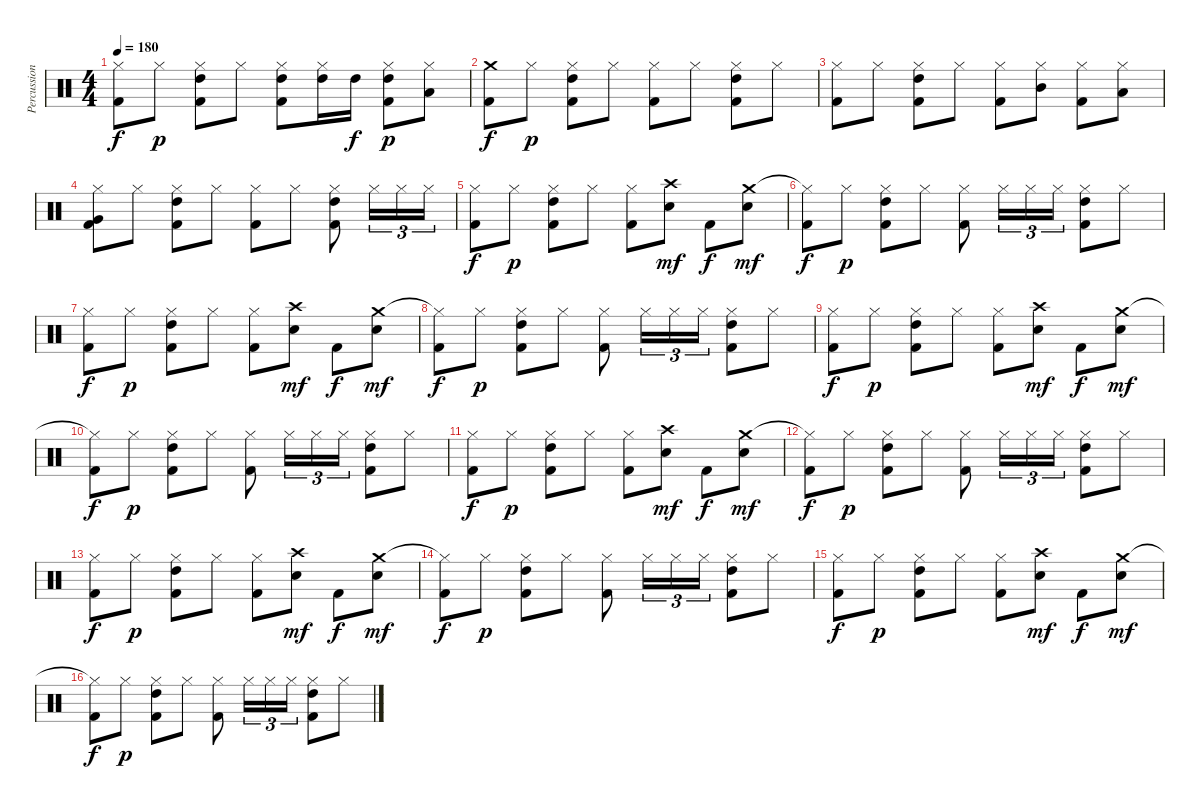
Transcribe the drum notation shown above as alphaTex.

\track ("Percussions" "Percussion") {instrument percussion}
\staff {score}
\articulation defaults
\ts (4 4)
\tempo 180
\clef neutral
\ks c
("Hi-Hat (closed)" "Kick (hit) 2").8{dy f} "Hi-Hat (closed)".8{dy p} ("Hi-Hat (closed)" "High Tom (hit)" "Kick (hit) 2").8 "Hi-Hat (closed)".8 ("Hi-Hat (closed)" "High Tom (hit)" "Kick (hit) 2").8 ("Hi-Hat (closed)" "High Tom (hit)").16 "High Tom (hit)".16{dy f} ("Hi-Hat (closed)" "High Tom (hit)" "Kick (hit) 2").8{dy p} ("Hi-Hat (closed)" "Low Tom (hit)").8 |
("Crash medium (hit)" "Kick (hit) 2").8{dy f} "Hi-Hat (closed)".8{dy p} ("Hi-Hat (closed)" "High Tom (hit)" "Kick (hit) 2").8 "Hi-Hat (closed)".8 ("Hi-Hat (closed)" "Kick (hit) 2").8 "Hi-Hat (closed)".8 ("Hi-Hat (closed)" "High Tom (hit)" "Kick (hit) 2").8 "Hi-Hat (closed)".8 |
("Hi-Hat (closed)" "Kick (hit) 2").8 "Hi-Hat (closed)".8 ("Hi-Hat (closed)" "High Tom (hit)" "Kick (hit) 2").8 "Hi-Hat (closed)".8 ("Hi-Hat (closed)" "Kick (hit) 2").8 ("Hi-Hat (closed)" "Mid Tom (hit)").8 ("Hi-Hat (closed)" "Kick (hit) 2").8 ("Hi-Hat (closed)" "Low Tom (hit)").8 |
("Hi-Hat (closed)" "Very Low Tom (hit)" "Kick (hit) 2").8 "Hi-Hat (closed)".8 ("Hi-Hat (closed)" "High Tom (hit)" "Kick (hit) 2").8 "Hi-Hat (closed)".8 ("Hi-Hat (closed)" "Kick (hit) 2").8 "Hi-Hat (closed)".8 ("Hi-Hat (closed)" "High Tom (hit)" "Kick (hit) 2").8 "Hi-Hat (closed)".16{tu (3 2)} "Hi-Hat (closed)".16{tu (3 2)} "Hi-Hat (closed)".16{tu (3 2)} |
("Hi-Hat (closed)" "Kick (hit) 2").8{dy f} "Hi-Hat (closed)".8{dy p} ("Hi-Hat (closed)" "High Tom (hit)" "Kick (hit) 2").8 "Hi-Hat (closed)".8 ("Hi-Hat (closed)" "Kick (hit) 2").8 ("Crash high (hit)" "Electric Snare (hit)").8{dy mf} "Kick (hit) 2".8{dy f} ("Crash medium (hit)" "Electric Snare (hit)").8{dy mf} |
("Hi-Hat (closed)"{t} "Kick (hit) 2").8{dy f} "Hi-Hat (closed)".8{dy p} ("Hi-Hat (closed)" "High Tom (hit)" "Kick (hit) 2").8 "Hi-Hat (closed)".8 ("Hi-Hat (closed)" "Kick (hit) 2").8 "Hi-Hat (closed)".16{tu (3 2)} "Hi-Hat (closed)".16{tu (3 2)} "Hi-Hat (closed)".16{tu (3 2)} ("Hi-Hat (closed)" "High Tom (hit)" "Kick (hit) 2").8 "Hi-Hat (closed)".8 |
("Hi-Hat (closed)" "Kick (hit) 2").8{dy f} "Hi-Hat (closed)".8{dy p} ("Hi-Hat (closed)" "High Tom (hit)" "Kick (hit) 2").8 "Hi-Hat (closed)".8 ("Hi-Hat (closed)" "Kick (hit) 2").8 ("Crash high (hit)" "Electric Snare (hit)").8{dy mf} "Kick (hit) 2".8{dy f} ("Crash medium (hit)" "Electric Snare (hit)").8{dy mf} |
("Hi-Hat (closed)"{t} "Kick (hit) 2").8{dy f} "Hi-Hat (closed)".8{dy p} ("Hi-Hat (closed)" "High Tom (hit)" "Kick (hit) 2").8 "Hi-Hat (closed)".8 ("Hi-Hat (closed)" "Kick (hit) 2").8 "Hi-Hat (closed)".16{tu (3 2)} "Hi-Hat (closed)".16{tu (3 2)} "Hi-Hat (closed)".16{tu (3 2)} ("Hi-Hat (closed)" "High Tom (hit)" "Kick (hit) 2").8 "Hi-Hat (closed)".8 |
("Hi-Hat (closed)" "Kick (hit) 2").8{dy f} "Hi-Hat (closed)".8{dy p} ("Hi-Hat (closed)" "High Tom (hit)" "Kick (hit) 2").8 "Hi-Hat (closed)".8 ("Hi-Hat (closed)" "Kick (hit) 2").8 ("Crash high (hit)" "Electric Snare (hit)").8{dy mf} "Kick (hit) 2".8{dy f} ("Crash medium (hit)" "Electric Snare (hit)").8{dy mf} |
("Hi-Hat (closed)"{t} "Kick (hit) 2").8{dy f} "Hi-Hat (closed)".8{dy p} ("Hi-Hat (closed)" "High Tom (hit)" "Kick (hit) 2").8 "Hi-Hat (closed)".8 ("Hi-Hat (closed)" "Kick (hit) 2").8 "Hi-Hat (closed)".16{tu (3 2)} "Hi-Hat (closed)".16{tu (3 2)} "Hi-Hat (closed)".16{tu (3 2)} ("Hi-Hat (closed)" "High Tom (hit)" "Kick (hit) 2").8 "Hi-Hat (closed)".8 |
("Hi-Hat (closed)" "Kick (hit) 2").8{dy f} "Hi-Hat (closed)".8{dy p} ("Hi-Hat (closed)" "High Tom (hit)" "Kick (hit) 2").8 "Hi-Hat (closed)".8 ("Hi-Hat (closed)" "Kick (hit) 2").8 ("Crash high (hit)" "Electric Snare (hit)").8{dy mf} "Kick (hit) 2".8{dy f} ("Crash medium (hit)" "Electric Snare (hit)").8{dy mf} |
("Hi-Hat (closed)"{t} "Kick (hit) 2").8{dy f} "Hi-Hat (closed)".8{dy p} ("Hi-Hat (closed)" "High Tom (hit)" "Kick (hit) 2").8 "Hi-Hat (closed)".8 ("Hi-Hat (closed)" "Kick (hit) 2").8 "Hi-Hat (closed)".16{tu (3 2)} "Hi-Hat (closed)".16{tu (3 2)} "Hi-Hat (closed)".16{tu (3 2)} ("Hi-Hat (closed)" "High Tom (hit)" "Kick (hit) 2").8 "Hi-Hat (closed)".8 |
("Hi-Hat (closed)" "Kick (hit) 2").8{dy f} "Hi-Hat (closed)".8{dy p} ("Hi-Hat (closed)" "High Tom (hit)" "Kick (hit) 2").8 "Hi-Hat (closed)".8 ("Hi-Hat (closed)" "Kick (hit) 2").8 ("Crash high (hit)" "Electric Snare (hit)").8{dy mf} "Kick (hit) 2".8{dy f} ("Crash medium (hit)" "Electric Snare (hit)").8{dy mf} |
("Hi-Hat (closed)"{t} "Kick (hit) 2").8{dy f} "Hi-Hat (closed)".8{dy p} ("Hi-Hat (closed)" "High Tom (hit)" "Kick (hit) 2").8 "Hi-Hat (closed)".8 ("Hi-Hat (closed)" "Kick (hit) 2").8 "Hi-Hat (closed)".16{tu (3 2)} "Hi-Hat (closed)".16{tu (3 2)} "Hi-Hat (closed)".16{tu (3 2)} ("Hi-Hat (closed)" "High Tom (hit)" "Kick (hit) 2").8 "Hi-Hat (closed)".8 |
("Hi-Hat (closed)" "Kick (hit) 2").8{dy f} "Hi-Hat (closed)".8{dy p} ("Hi-Hat (closed)" "High Tom (hit)" "Kick (hit) 2").8 "Hi-Hat (closed)".8 ("Hi-Hat (closed)" "Kick (hit) 2").8 ("Crash high (hit)" "Electric Snare (hit)").8{dy mf} "Kick (hit) 2".8{dy f} ("Crash medium (hit)" "Electric Snare (hit)").8{dy mf} |
("Hi-Hat (closed)"{t} "Kick (hit) 2").8{dy f} "Hi-Hat (closed)".8{dy p} ("Hi-Hat (closed)" "High Tom (hit)" "Kick (hit) 2").8 "Hi-Hat (closed)".8 ("Hi-Hat (closed)" "Kick (hit) 2").8 "Hi-Hat (closed)".16{tu (3 2)} "Hi-Hat (closed)".16{tu (3 2)} "Hi-Hat (closed)".16{tu (3 2)} ("Hi-Hat (closed)" "High Tom (hit)" "Kick (hit) 2").8 "Hi-Hat (closed)".8
